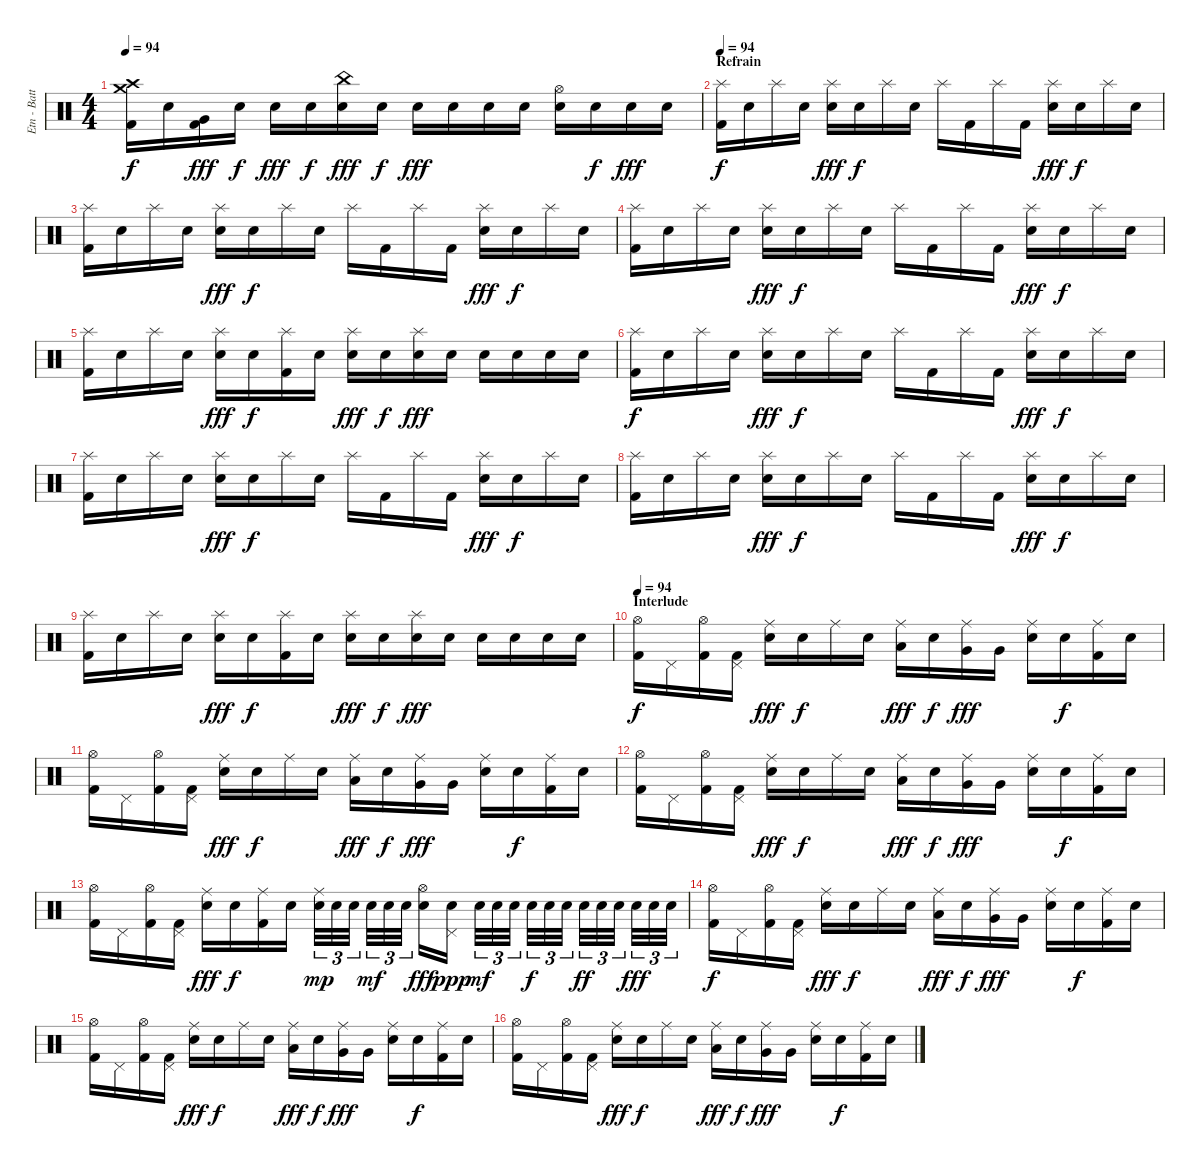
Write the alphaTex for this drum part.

\track ("Etn - Batterie" "Etn - Batt") {instrument percussion}
\staff {score}
\articulation defaults
\ts (4 4)
\tempo 94
\clef neutral
\ks c
("Crash medium (hit)" "Crash high (hit)" "Kick (hit) 2").16{dy f} "Snare (hit)".16 ("Very Low Tom (hit)" "Kick (hit) 2").16{dy fff} "Snare (hit)".16{dy f} "Electric Snare (hit)".16{dy fff} "Snare (hit)".16{dy f} ("China (hit)" "Electric Snare (hit)").16{dy fff} "Snare (hit)".16{dy f} "Electric Snare (hit)".16{dy fff} "Electric Snare (hit)".16 "Electric Snare (hit)".16 "Electric Snare (hit)".16 ("Hi-Hat (open)" "Electric Snare (hit)").16 "Snare (hit)".16{dy f} "Electric Snare (hit)".16{dy fff} "Electric Snare (hit)".16 |
\section ("" "Refrain")
\tempo 94
("Splash (hit)" "Kick (hit) 2").16{dy f volume 16 balance 8} "Snare (hit)".16 "Splash (hit)".16 "Snare (hit)".16 ("Splash (hit)" "Electric Snare (hit)").16{dy fff} "Snare (hit)".16{dy f} "Splash (hit)".16 "Snare (hit)".16 "Splash (hit)".16 "Kick (hit) 2".16 "Splash (hit)".16 "Kick (hit) 2".16 ("Splash (hit)" "Electric Snare (hit)").16{dy fff} "Snare (hit)".16{dy f} "Splash (hit)".16 "Snare (hit)".16 |
("Splash (hit)" "Kick (hit) 2").16 "Snare (hit)".16 "Splash (hit)".16 "Snare (hit)".16 ("Splash (hit)" "Electric Snare (hit)").16{dy fff} "Snare (hit)".16{dy f} "Splash (hit)".16 "Snare (hit)".16 "Splash (hit)".16 "Kick (hit) 2".16 "Splash (hit)".16 "Kick (hit) 2".16 ("Splash (hit)" "Electric Snare (hit)").16{dy fff} "Snare (hit)".16{dy f} "Splash (hit)".16 "Snare (hit)".16 |
("Splash (hit)" "Kick (hit) 2").16 "Snare (hit)".16 "Splash (hit)".16 "Snare (hit)".16 ("Splash (hit)" "Electric Snare (hit)").16{dy fff} "Snare (hit)".16{dy f} "Splash (hit)".16 "Snare (hit)".16 "Splash (hit)".16 "Kick (hit) 2".16 "Splash (hit)".16 "Kick (hit) 2".16 ("Splash (hit)" "Electric Snare (hit)").16{dy fff} "Snare (hit)".16{dy f} "Splash (hit)".16 "Snare (hit)".16 |
("Splash (hit)" "Kick (hit) 2").16 "Snare (hit)".16 "Splash (hit)".16 "Snare (hit)".16 ("Splash (hit)" "Electric Snare (hit)").16{dy fff} "Snare (hit)".16{dy f} ("Splash (hit)" "Kick (hit) 2").16 "Snare (hit)".16 ("Splash (hit)" "Electric Snare (hit)").16{dy fff} "Snare (hit)".16{dy f} ("Splash (hit)" "Electric Snare (hit)").16{dy fff} "Electric Snare (hit)".16 "Electric Snare (hit)".16 "Electric Snare (hit)".16 "Electric Snare (hit)".16 "Electric Snare (hit)".16 |
("Splash (hit)" "Kick (hit) 2").16{dy f} "Snare (hit)".16 "Splash (hit)".16 "Snare (hit)".16 ("Splash (hit)" "Electric Snare (hit)").16{dy fff} "Snare (hit)".16{dy f} "Splash (hit)".16 "Snare (hit)".16 "Splash (hit)".16 "Kick (hit) 2".16 "Splash (hit)".16 "Kick (hit) 2".16 ("Splash (hit)" "Electric Snare (hit)").16{dy fff} "Snare (hit)".16{dy f} "Splash (hit)".16 "Snare (hit)".16 |
("Splash (hit)" "Kick (hit) 2").16 "Snare (hit)".16 "Splash (hit)".16 "Snare (hit)".16 ("Splash (hit)" "Electric Snare (hit)").16{dy fff} "Snare (hit)".16{dy f} "Splash (hit)".16 "Snare (hit)".16 "Splash (hit)".16 "Kick (hit) 2".16 "Splash (hit)".16 "Kick (hit) 2".16 ("Splash (hit)" "Electric Snare (hit)").16{dy fff} "Snare (hit)".16{dy f} "Splash (hit)".16 "Snare (hit)".16 |
("Splash (hit)" "Kick (hit) 2").16 "Snare (hit)".16 "Splash (hit)".16 "Snare (hit)".16 ("Splash (hit)" "Electric Snare (hit)").16{dy fff} "Snare (hit)".16{dy f} "Splash (hit)".16 "Snare (hit)".16 "Splash (hit)".16 "Kick (hit) 2".16 "Splash (hit)".16 "Kick (hit) 2".16 ("Splash (hit)" "Electric Snare (hit)").16{dy fff} "Snare (hit)".16{dy f} "Splash (hit)".16 "Snare (hit)".16 |
("Splash (hit)" "Kick (hit) 2").16 "Snare (hit)".16 "Splash (hit)".16 "Snare (hit)".16 ("Splash (hit)" "Electric Snare (hit)").16{dy fff} "Snare (hit)".16{dy f} ("Splash (hit)" "Kick (hit) 2").16 "Snare (hit)".16 ("Splash (hit)" "Electric Snare (hit)").16{dy fff} "Snare (hit)".16{dy f} ("Splash (hit)" "Electric Snare (hit)").16{dy fff} "Electric Snare (hit)".16 "Electric Snare (hit)".16 "Electric Snare (hit)".16 "Electric Snare (hit)".16 "Electric Snare (hit)".16 |
\section ("" "Interlude")
\tempo 94
("Hi-Hat (open)" "Kick (hit) 2").16{dy f volume 16 balance 8} "Pedal Hi-Hat (hit)".16 ("Hi-Hat (open)" "Kick (hit) 2").16 ("Pedal Hi-Hat (hit)" "Kick (hit) 2").16 ("Ride (middle)" "Electric Snare (hit)").16{dy fff} "Snare (hit)".16{dy f} "Ride (middle)".16 "Snare (hit)".16 ("Ride (middle)" "Low Tom (hit)").16{dy fff} "Snare (hit)".16{dy f} ("Ride (middle)" "Very Low Tom (hit)").16{dy fff} "Very Low Tom (hit)".16 ("Ride (middle)" "Electric Snare (hit)").16 "Snare (hit)".16{dy f} ("Ride (middle)" "Kick (hit) 2").16 "Snare (hit)".16 |
("Hi-Hat (open)" "Kick (hit) 2").16 "Pedal Hi-Hat (hit)".16 ("Hi-Hat (open)" "Kick (hit) 2").16 ("Pedal Hi-Hat (hit)" "Kick (hit) 2").16 ("Ride (middle)" "Electric Snare (hit)").16{dy fff} "Snare (hit)".16{dy f} "Ride (middle)".16 "Snare (hit)".16 ("Ride (middle)" "Low Tom (hit)").16{dy fff} "Snare (hit)".16{dy f} ("Ride (middle)" "Very Low Tom (hit)").16{dy fff} "Very Low Tom (hit)".16 ("Ride (middle)" "Electric Snare (hit)").16 "Snare (hit)".16{dy f} ("Ride (middle)" "Kick (hit) 2").16 "Snare (hit)".16 |
("Hi-Hat (open)" "Kick (hit) 2").16 "Pedal Hi-Hat (hit)".16 ("Hi-Hat (open)" "Kick (hit) 2").16 ("Pedal Hi-Hat (hit)" "Kick (hit) 2").16 ("Ride (middle)" "Electric Snare (hit)").16{dy fff} "Snare (hit)".16{dy f} "Ride (middle)".16 "Snare (hit)".16 ("Ride (middle)" "Low Tom (hit)").16{dy fff} "Snare (hit)".16{dy f} ("Ride (middle)" "Very Low Tom (hit)").16{dy fff} "Very Low Tom (hit)".16 ("Ride (middle)" "Electric Snare (hit)").16 "Snare (hit)".16{dy f} ("Ride (middle)" "Kick (hit) 2").16 "Snare (hit)".16 |
("Hi-Hat (open)" "Kick (hit) 2").16 "Pedal Hi-Hat (hit)".16 ("Hi-Hat (open)" "Kick (hit) 2").16 ("Pedal Hi-Hat (hit)" "Kick (hit) 2").16 ("Ride (middle)" "Electric Snare (hit)").16{dy fff} "Snare (hit)".16{dy f} ("Ride (middle)" "Kick (hit) 2").16 "Snare (hit)".16 ("Ride (middle)" "Electric Snare (hit)").32{tu (3 2) dy mp} "Electric Snare (hit)".32{tu (3 2)} "Electric Snare (hit)".32{tu (3 2)} "Electric Snare (hit)".32{tu (3 2) dy mf} "Electric Snare (hit)".32{tu (3 2)} "Electric Snare (hit)".32{tu (3 2)} ("Hi-Hat (open)" "Electric Snare (hit)").16{dy fff} ("Pedal Hi-Hat (hit)" "Snare (hit)").16{dy ppp} "Electric Snare (hit)".32{tu (3 2) dy mf} "Electric Snare (hit)".32{tu (3 2)} "Electric Snare (hit)".32{tu (3 2)} "Electric Snare (hit)".32{tu (3 2) dy f} "Electric Snare (hit)".32{tu (3 2)} "Electric Snare (hit)".32{tu (3 2)} "Electric Snare (hit)".32{tu (3 2) dy ff} "Electric Snare (hit)".32{tu (3 2)} "Electric Snare (hit)".32{tu (3 2)} "Electric Snare (hit)".32{tu (3 2) dy fff} "Electric Snare (hit)".32{tu (3 2)} "Electric Snare (hit)".32{tu (3 2)} |
("Hi-Hat (open)" "Kick (hit) 2").16{dy f} "Pedal Hi-Hat (hit)".16 ("Hi-Hat (open)" "Kick (hit) 2").16 ("Pedal Hi-Hat (hit)" "Kick (hit) 2").16 ("Ride (middle)" "Electric Snare (hit)").16{dy fff} "Snare (hit)".16{dy f} "Ride (middle)".16 "Snare (hit)".16 ("Ride (middle)" "Low Tom (hit)").16{dy fff} "Snare (hit)".16{dy f} ("Ride (middle)" "Very Low Tom (hit)").16{dy fff} "Very Low Tom (hit)".16 ("Ride (middle)" "Electric Snare (hit)").16 "Snare (hit)".16{dy f} ("Ride (middle)" "Kick (hit) 2").16 "Snare (hit)".16 |
("Hi-Hat (open)" "Kick (hit) 2").16 "Pedal Hi-Hat (hit)".16 ("Hi-Hat (open)" "Kick (hit) 2").16 ("Pedal Hi-Hat (hit)" "Kick (hit) 2").16 ("Ride (middle)" "Electric Snare (hit)").16{dy fff} "Snare (hit)".16{dy f} "Ride (middle)".16 "Snare (hit)".16 ("Ride (middle)" "Low Tom (hit)").16{dy fff} "Snare (hit)".16{dy f} ("Ride (middle)" "Very Low Tom (hit)").16{dy fff} "Very Low Tom (hit)".16 ("Ride (middle)" "Electric Snare (hit)").16 "Snare (hit)".16{dy f} ("Ride (middle)" "Kick (hit) 2").16 "Snare (hit)".16 |
("Hi-Hat (open)" "Kick (hit) 2").16 "Pedal Hi-Hat (hit)".16 ("Hi-Hat (open)" "Kick (hit) 2").16 ("Pedal Hi-Hat (hit)" "Kick (hit) 2").16 ("Ride (middle)" "Electric Snare (hit)").16{dy fff} "Snare (hit)".16{dy f} "Ride (middle)".16 "Snare (hit)".16 ("Ride (middle)" "Low Tom (hit)").16{dy fff} "Snare (hit)".16{dy f} ("Ride (middle)" "Very Low Tom (hit)").16{dy fff} "Very Low Tom (hit)".16 ("Ride (middle)" "Electric Snare (hit)").16 "Snare (hit)".16{dy f} ("Ride (middle)" "Kick (hit) 2").16 "Snare (hit)".16
